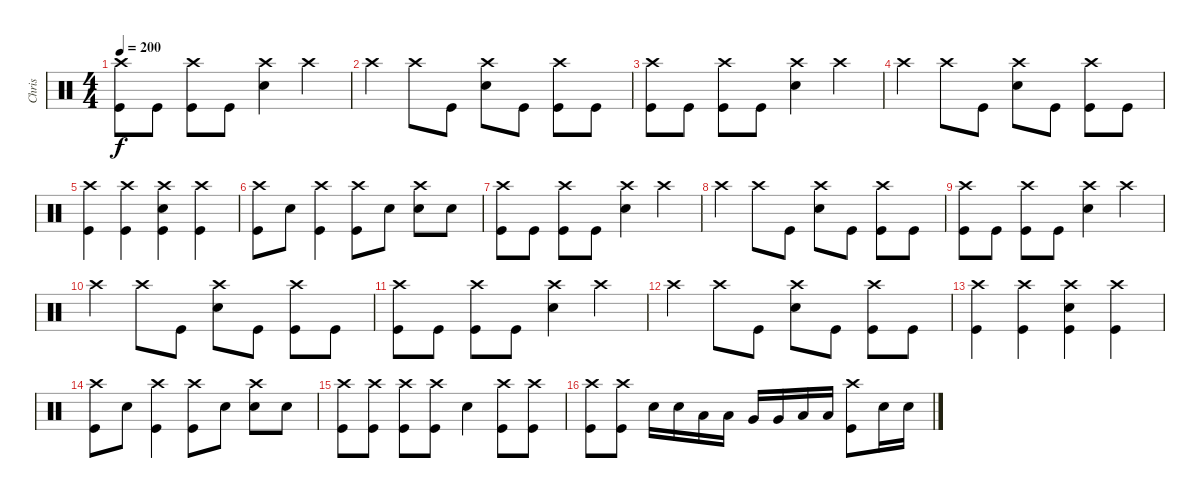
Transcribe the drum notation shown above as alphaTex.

\track ("Chris" "Chris") {instrument percussion}
\staff {score}
\articulation defaults
\ts (4 4)
\tempo 200
\clef neutral
\ks c
("Crash high (hit)" "Kick (hit)").8{dy f} "Kick (hit)".8 ("Crash high (hit)" "Kick (hit)").8 "Kick (hit)".8 ("Crash high (hit)" "Electric Snare (hit)").4 "Crash high (hit)".4 |
"Crash high (hit)".4 "Crash high (hit)".8 "Kick (hit)".8 ("Crash high (hit)" "Electric Snare (hit)").8 "Kick (hit)".8 ("Crash high (hit)" "Kick (hit)").8 "Kick (hit)".8 |
("Crash high (hit)" "Kick (hit)").8 "Kick (hit)".8 ("Crash high (hit)" "Kick (hit)").8 "Kick (hit)".8 ("Crash high (hit)" "Electric Snare (hit)").4 "Crash high (hit)".4 |
"Crash high (hit)".4 "Crash high (hit)".8 "Kick (hit)".8 ("Crash high (hit)" "Electric Snare (hit)").8 "Kick (hit)".8 ("Crash high (hit)" "Kick (hit)").8 "Kick (hit)".8 |
("Crash high (hit)" "Kick (hit)").4 ("Crash high (hit)" "Kick (hit)").4 ("Crash high (hit)" "Electric Snare (hit)" "Kick (hit)").4 ("Crash high (hit)" "Kick (hit)").4 |
("Crash high (hit)" "Kick (hit)").8 "Electric Snare (hit)".8 ("Crash high (hit)" "Kick (hit)").4 ("Crash high (hit)" "Kick (hit)").8 "Electric Snare (hit)".8 ("Crash high (hit)" "Electric Snare (hit)").8 "Electric Snare (hit)".8 |
("Crash high (hit)" "Kick (hit)").8 "Kick (hit)".8 ("Crash high (hit)" "Kick (hit)").8 "Kick (hit)".8 ("Crash high (hit)" "Electric Snare (hit)").4 "Crash high (hit)".4 |
"Crash high (hit)".4 "Crash high (hit)".8 "Kick (hit)".8 ("Crash high (hit)" "Electric Snare (hit)").8 "Kick (hit)".8 ("Crash high (hit)" "Kick (hit)").8 "Kick (hit)".8 |
("Crash high (hit)" "Kick (hit)").8 "Kick (hit)".8 ("Crash high (hit)" "Kick (hit)").8 "Kick (hit)".8 ("Crash high (hit)" "Electric Snare (hit)").4 "Crash high (hit)".4 |
"Crash high (hit)".4 "Crash high (hit)".8 "Kick (hit)".8 ("Crash high (hit)" "Electric Snare (hit)").8 "Kick (hit)".8 ("Crash high (hit)" "Kick (hit)").8 "Kick (hit)".8 |
("Crash high (hit)" "Kick (hit)").8 "Kick (hit)".8 ("Crash high (hit)" "Kick (hit)").8 "Kick (hit)".8 ("Crash high (hit)" "Electric Snare (hit)").4 "Crash high (hit)".4 |
"Crash high (hit)".4 "Crash high (hit)".8 "Kick (hit)".8 ("Crash high (hit)" "Electric Snare (hit)").8 "Kick (hit)".8 ("Crash high (hit)" "Kick (hit)").8 "Kick (hit)".8 |
("Crash high (hit)" "Kick (hit)").4 ("Crash high (hit)" "Kick (hit)").4 ("Crash high (hit)" "Electric Snare (hit)" "Kick (hit)").4 ("Crash high (hit)" "Kick (hit)").4 |
("Crash high (hit)" "Kick (hit)").8 "Electric Snare (hit)".8 ("Crash high (hit)" "Kick (hit)").4 ("Crash high (hit)" "Kick (hit)").8 "Electric Snare (hit)".8 ("Crash high (hit)" "Electric Snare (hit)").8 "Electric Snare (hit)".8 |
("Crash high (hit)" "Kick (hit)").8 ("Crash high (hit)" "Kick (hit)").8 ("Crash high (hit)" "Kick (hit)").8 ("Crash high (hit)" "Kick (hit)").8 "Electric Snare (hit)".4 ("Crash high (hit)" "Kick (hit)").8 ("Crash high (hit)" "Kick (hit)").8 |
("Crash high (hit)" "Kick (hit)").8 ("Crash high (hit)" "Kick (hit)").8 "Electric Snare (hit)".16 "Electric Snare (hit)".16 "Low Tom (hit)".16 "Low Tom (hit)".16 "Very Low Tom (hit)".16 "Very Low Tom (hit)".16 "Low Floor Tom (hit)".16 "Low Floor Tom (hit)".16 ("Crash high (hit)" "Kick (hit)").8 "Electric Snare (hit)".16 "Electric Snare (hit)".16
